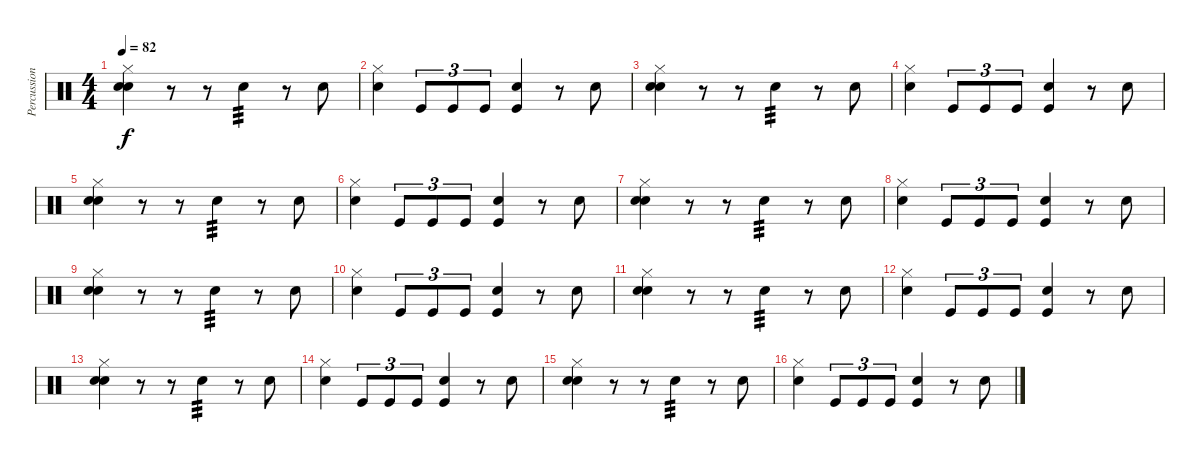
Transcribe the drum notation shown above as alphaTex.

\track ("Percussion" "Percussion") {instrument percussion}
\staff {score}
\articulation defaults
\ts (4 4)
\tempo 82
\clef neutral
\ks c
("Snare (hit) 2" "Hi-Hat (closed)" "Electric Snare (hit)").4{dy f} r.8 r.8 "Snare (hit) 2".4{tp 3} r.8 "Snare (hit) 2".8 |
("Snare (hit) 2" "Hi-Hat (closed)").4 "Kick (hit)".8{tu (3 2)} "Kick (hit)".8{tu (3 2)} "Kick (hit)".8{tu (3 2)} ("Snare (hit) 2" "Kick (hit)").4 r.8 "Snare (hit) 2".8 |
("Snare (hit) 2" "Hi-Hat (closed)" "Electric Snare (hit)").4 r.8 r.8 "Snare (hit) 2".4{tp 3} r.8 "Snare (hit) 2".8 |
("Snare (hit) 2" "Hi-Hat (closed)").4 "Kick (hit)".8{tu (3 2)} "Kick (hit)".8{tu (3 2)} "Kick (hit)".8{tu (3 2)} ("Snare (hit) 2" "Kick (hit)").4 r.8 "Snare (hit) 2".8 |
("Snare (hit) 2" "Hi-Hat (closed)" "Electric Snare (hit)").4 r.8 r.8 "Snare (hit) 2".4{tp 3} r.8 "Snare (hit) 2".8 |
("Snare (hit) 2" "Hi-Hat (closed)").4 "Kick (hit)".8{tu (3 2)} "Kick (hit)".8{tu (3 2)} "Kick (hit)".8{tu (3 2)} ("Snare (hit) 2" "Kick (hit)").4 r.8 "Snare (hit) 2".8 |
("Snare (hit) 2" "Hi-Hat (closed)" "Electric Snare (hit)").4 r.8 r.8 "Snare (hit) 2".4{tp 3} r.8 "Snare (hit) 2".8 |
("Snare (hit) 2" "Hi-Hat (closed)").4 "Kick (hit)".8{tu (3 2)} "Kick (hit)".8{tu (3 2)} "Kick (hit)".8{tu (3 2)} ("Snare (hit) 2" "Kick (hit)").4 r.8 "Snare (hit) 2".8 |
("Snare (hit) 2" "Hi-Hat (closed)" "Electric Snare (hit)").4 r.8 r.8 "Snare (hit) 2".4{tp 3} r.8 "Snare (hit) 2".8 |
("Snare (hit) 2" "Hi-Hat (closed)").4 "Kick (hit)".8{tu (3 2)} "Kick (hit)".8{tu (3 2)} "Kick (hit)".8{tu (3 2)} ("Snare (hit) 2" "Kick (hit)").4 r.8 "Snare (hit) 2".8 |
("Snare (hit) 2" "Hi-Hat (closed)" "Electric Snare (hit)").4 r.8 r.8 "Snare (hit) 2".4{tp 3} r.8 "Snare (hit) 2".8 |
("Snare (hit) 2" "Hi-Hat (closed)").4 "Kick (hit)".8{tu (3 2)} "Kick (hit)".8{tu (3 2)} "Kick (hit)".8{tu (3 2)} ("Snare (hit) 2" "Kick (hit)").4 r.8 "Snare (hit) 2".8 |
("Snare (hit) 2" "Hi-Hat (closed)" "Electric Snare (hit)").4 r.8 r.8 "Snare (hit) 2".4{tp 3} r.8 "Snare (hit) 2".8 |
("Snare (hit) 2" "Hi-Hat (closed)").4 "Kick (hit)".8{tu (3 2)} "Kick (hit)".8{tu (3 2)} "Kick (hit)".8{tu (3 2)} ("Snare (hit) 2" "Kick (hit)").4 r.8 "Snare (hit) 2".8 |
("Snare (hit) 2" "Hi-Hat (closed)" "Electric Snare (hit)").4 r.8 r.8 "Snare (hit) 2".4{tp 3} r.8 "Snare (hit) 2".8 |
("Snare (hit) 2" "Hi-Hat (closed)").4 "Kick (hit)".8{tu (3 2)} "Kick (hit)".8{tu (3 2)} "Kick (hit)".8{tu (3 2)} ("Snare (hit) 2" "Kick (hit)").4 r.8 "Snare (hit) 2".8
